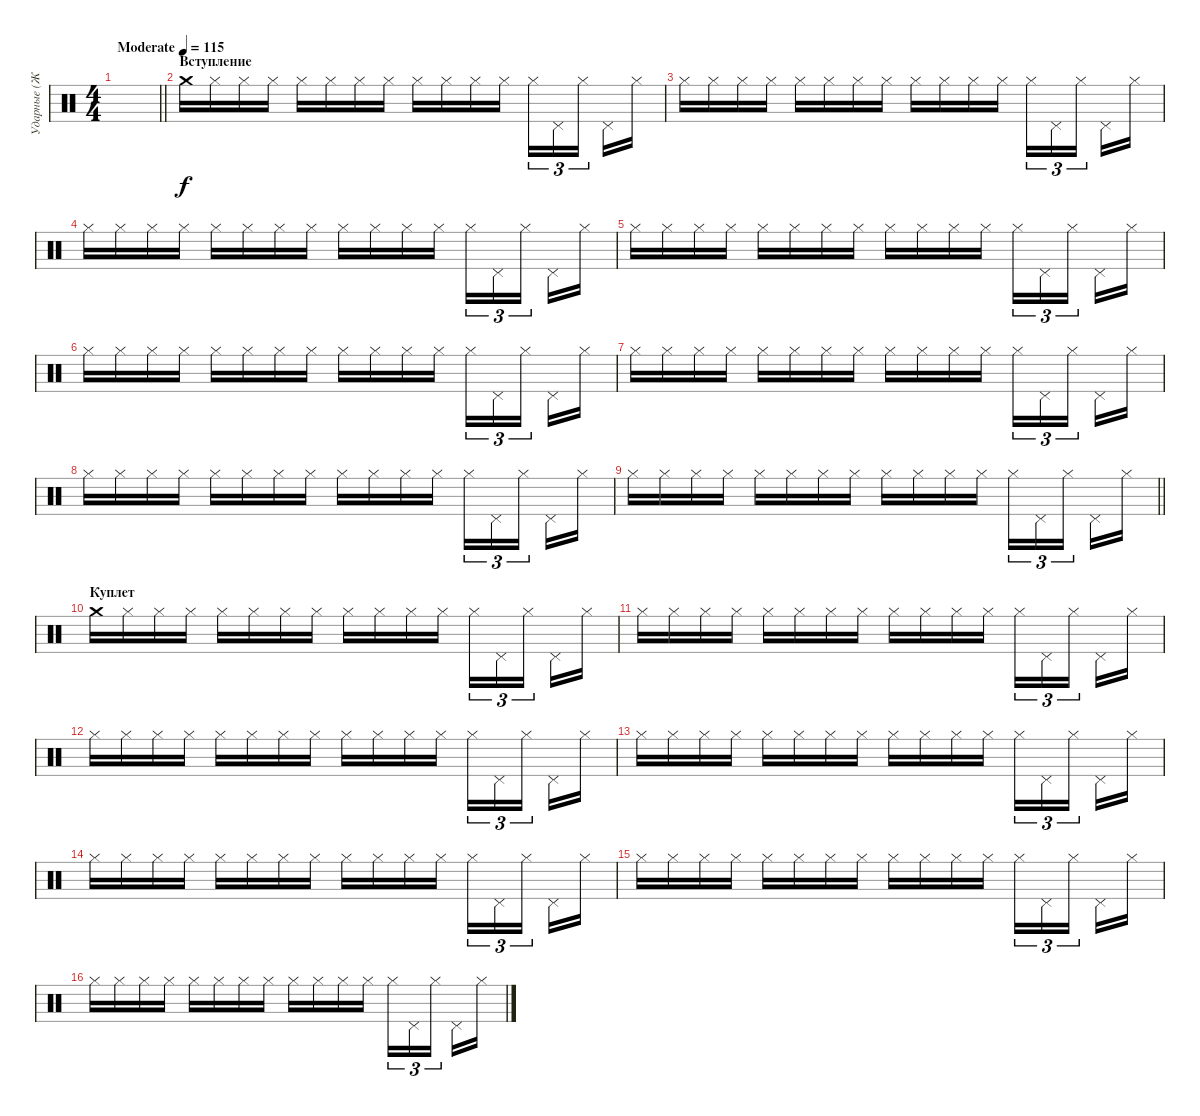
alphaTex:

\track ("Ударные (Железо)" "Ударные (Ж") {instrument percussion}
\staff {score}
\articulation defaults
\ts (4 4)
\tempo (115 "Moderate")
\clef neutral
\barLineRight lightlight
\ks c
|
\section ("" "Вступление")
"Crash medium (hit)".16 "Hi-Hat (closed)".16 "Hi-Hat (closed)".16 "Hi-Hat (closed)".16 "Hi-Hat (closed)".16 "Hi-Hat (closed)".16 "Hi-Hat (closed)".16 "Hi-Hat (closed)".16 "Hi-Hat (closed)".16 "Hi-Hat (closed)".16 "Hi-Hat (closed)".16 "Hi-Hat (closed)".16 "Hi-Hat (closed)".16{tu (3 2)} "Pedal Hi-Hat (hit)".16{tu (3 2)} "Hi-Hat (closed)".16{tu (3 2) beam splitsecondary} "Pedal Hi-Hat (hit)".16 "Hi-Hat (closed)".16 |
"Hi-Hat (closed)".16 "Hi-Hat (closed)".16 "Hi-Hat (closed)".16 "Hi-Hat (closed)".16 "Hi-Hat (closed)".16 "Hi-Hat (closed)".16 "Hi-Hat (closed)".16 "Hi-Hat (closed)".16 "Hi-Hat (closed)".16 "Hi-Hat (closed)".16 "Hi-Hat (closed)".16 "Hi-Hat (closed)".16 "Hi-Hat (closed)".16{tu (3 2)} "Pedal Hi-Hat (hit)".16{tu (3 2)} "Hi-Hat (closed)".16{tu (3 2) beam splitsecondary} "Pedal Hi-Hat (hit)".16 "Hi-Hat (closed)".16 |
"Hi-Hat (closed)".16 "Hi-Hat (closed)".16 "Hi-Hat (closed)".16 "Hi-Hat (closed)".16 "Hi-Hat (closed)".16 "Hi-Hat (closed)".16 "Hi-Hat (closed)".16 "Hi-Hat (closed)".16 "Hi-Hat (closed)".16 "Hi-Hat (closed)".16 "Hi-Hat (closed)".16 "Hi-Hat (closed)".16 "Hi-Hat (closed)".16{tu (3 2)} "Pedal Hi-Hat (hit)".16{tu (3 2)} "Hi-Hat (closed)".16{tu (3 2) beam splitsecondary} "Pedal Hi-Hat (hit)".16 "Hi-Hat (closed)".16 |
"Hi-Hat (closed)".16 "Hi-Hat (closed)".16 "Hi-Hat (closed)".16 "Hi-Hat (closed)".16 "Hi-Hat (closed)".16 "Hi-Hat (closed)".16 "Hi-Hat (closed)".16 "Hi-Hat (closed)".16 "Hi-Hat (closed)".16 "Hi-Hat (closed)".16 "Hi-Hat (closed)".16 "Hi-Hat (closed)".16 "Hi-Hat (closed)".16{tu (3 2)} "Pedal Hi-Hat (hit)".16{tu (3 2)} "Hi-Hat (closed)".16{tu (3 2) beam splitsecondary} "Pedal Hi-Hat (hit)".16 "Hi-Hat (closed)".16 |
"Hi-Hat (closed)".16 "Hi-Hat (closed)".16 "Hi-Hat (closed)".16 "Hi-Hat (closed)".16 "Hi-Hat (closed)".16 "Hi-Hat (closed)".16 "Hi-Hat (closed)".16 "Hi-Hat (closed)".16 "Hi-Hat (closed)".16 "Hi-Hat (closed)".16 "Hi-Hat (closed)".16 "Hi-Hat (closed)".16 "Hi-Hat (closed)".16{tu (3 2)} "Pedal Hi-Hat (hit)".16{tu (3 2)} "Hi-Hat (closed)".16{tu (3 2) beam splitsecondary} "Pedal Hi-Hat (hit)".16 "Hi-Hat (closed)".16 |
"Hi-Hat (closed)".16 "Hi-Hat (closed)".16 "Hi-Hat (closed)".16 "Hi-Hat (closed)".16 "Hi-Hat (closed)".16 "Hi-Hat (closed)".16 "Hi-Hat (closed)".16 "Hi-Hat (closed)".16 "Hi-Hat (closed)".16 "Hi-Hat (closed)".16 "Hi-Hat (closed)".16 "Hi-Hat (closed)".16 "Hi-Hat (closed)".16{tu (3 2)} "Pedal Hi-Hat (hit)".16{tu (3 2)} "Hi-Hat (closed)".16{tu (3 2) beam splitsecondary} "Pedal Hi-Hat (hit)".16 "Hi-Hat (closed)".16 |
"Hi-Hat (closed)".16 "Hi-Hat (closed)".16 "Hi-Hat (closed)".16 "Hi-Hat (closed)".16 "Hi-Hat (closed)".16 "Hi-Hat (closed)".16 "Hi-Hat (closed)".16 "Hi-Hat (closed)".16 "Hi-Hat (closed)".16 "Hi-Hat (closed)".16 "Hi-Hat (closed)".16 "Hi-Hat (closed)".16 "Hi-Hat (closed)".16{tu (3 2)} "Pedal Hi-Hat (hit)".16{tu (3 2)} "Hi-Hat (closed)".16{tu (3 2) beam splitsecondary} "Pedal Hi-Hat (hit)".16 "Hi-Hat (closed)".16 |
\barLineRight lightlight "Hi-Hat (closed)".16 "Hi-Hat (closed)".16 "Hi-Hat (closed)".16 "Hi-Hat (closed)".16 "Hi-Hat (closed)".16 "Hi-Hat (closed)".16 "Hi-Hat (closed)".16 "Hi-Hat (closed)".16 "Hi-Hat (closed)".16 "Hi-Hat (closed)".16 "Hi-Hat (closed)".16 "Hi-Hat (closed)".16 "Hi-Hat (closed)".16{tu (3 2)} "Pedal Hi-Hat (hit)".16{tu (3 2)} "Hi-Hat (closed)".16{tu (3 2) beam splitsecondary} "Pedal Hi-Hat (hit)".16 "Hi-Hat (closed)".16
|
\section ("" "Куплет")
"Crash medium (hit)".16 "Hi-Hat (closed)".16 "Hi-Hat (closed)".16 "Hi-Hat (closed)".16 "Hi-Hat (closed)".16 "Hi-Hat (closed)".16 "Hi-Hat (closed)".16 "Hi-Hat (closed)".16 "Hi-Hat (closed)".16 "Hi-Hat (closed)".16 "Hi-Hat (closed)".16 "Hi-Hat (closed)".16 "Hi-Hat (closed)".16{tu (3 2)} "Pedal Hi-Hat (hit)".16{tu (3 2)} "Hi-Hat (closed)".16{tu (3 2) beam splitsecondary} "Pedal Hi-Hat (hit)".16 "Hi-Hat (closed)".16 |
"Hi-Hat (closed)".16 "Hi-Hat (closed)".16 "Hi-Hat (closed)".16 "Hi-Hat (closed)".16 "Hi-Hat (closed)".16 "Hi-Hat (closed)".16 "Hi-Hat (closed)".16 "Hi-Hat (closed)".16 "Hi-Hat (closed)".16 "Hi-Hat (closed)".16 "Hi-Hat (closed)".16 "Hi-Hat (closed)".16 "Hi-Hat (closed)".16{tu (3 2)} "Pedal Hi-Hat (hit)".16{tu (3 2)} "Hi-Hat (closed)".16{tu (3 2) beam splitsecondary} "Pedal Hi-Hat (hit)".16 "Hi-Hat (closed)".16 |
"Hi-Hat (closed)".16 "Hi-Hat (closed)".16 "Hi-Hat (closed)".16 "Hi-Hat (closed)".16 "Hi-Hat (closed)".16 "Hi-Hat (closed)".16 "Hi-Hat (closed)".16 "Hi-Hat (closed)".16 "Hi-Hat (closed)".16 "Hi-Hat (closed)".16 "Hi-Hat (closed)".16 "Hi-Hat (closed)".16 "Hi-Hat (closed)".16{tu (3 2)} "Pedal Hi-Hat (hit)".16{tu (3 2)} "Hi-Hat (closed)".16{tu (3 2) beam splitsecondary} "Pedal Hi-Hat (hit)".16 "Hi-Hat (closed)".16 |
"Hi-Hat (closed)".16 "Hi-Hat (closed)".16 "Hi-Hat (closed)".16 "Hi-Hat (closed)".16 "Hi-Hat (closed)".16 "Hi-Hat (closed)".16 "Hi-Hat (closed)".16 "Hi-Hat (closed)".16 "Hi-Hat (closed)".16 "Hi-Hat (closed)".16 "Hi-Hat (closed)".16 "Hi-Hat (closed)".16 "Hi-Hat (closed)".16{tu (3 2)} "Pedal Hi-Hat (hit)".16{tu (3 2)} "Hi-Hat (closed)".16{tu (3 2) beam splitsecondary} "Pedal Hi-Hat (hit)".16 "Hi-Hat (closed)".16 |
"Hi-Hat (closed)".16 "Hi-Hat (closed)".16 "Hi-Hat (closed)".16 "Hi-Hat (closed)".16 "Hi-Hat (closed)".16 "Hi-Hat (closed)".16 "Hi-Hat (closed)".16 "Hi-Hat (closed)".16 "Hi-Hat (closed)".16 "Hi-Hat (closed)".16 "Hi-Hat (closed)".16 "Hi-Hat (closed)".16 "Hi-Hat (closed)".16{tu (3 2)} "Pedal Hi-Hat (hit)".16{tu (3 2)} "Hi-Hat (closed)".16{tu (3 2) beam splitsecondary} "Pedal Hi-Hat (hit)".16 "Hi-Hat (closed)".16 |
"Hi-Hat (closed)".16 "Hi-Hat (closed)".16 "Hi-Hat (closed)".16 "Hi-Hat (closed)".16 "Hi-Hat (closed)".16 "Hi-Hat (closed)".16 "Hi-Hat (closed)".16 "Hi-Hat (closed)".16 "Hi-Hat (closed)".16 "Hi-Hat (closed)".16 "Hi-Hat (closed)".16 "Hi-Hat (closed)".16 "Hi-Hat (closed)".16{tu (3 2)} "Pedal Hi-Hat (hit)".16{tu (3 2)} "Hi-Hat (closed)".16{tu (3 2) beam splitsecondary} "Pedal Hi-Hat (hit)".16 "Hi-Hat (closed)".16 |
"Hi-Hat (closed)".16 "Hi-Hat (closed)".16 "Hi-Hat (closed)".16 "Hi-Hat (closed)".16 "Hi-Hat (closed)".16 "Hi-Hat (closed)".16 "Hi-Hat (closed)".16 "Hi-Hat (closed)".16 "Hi-Hat (closed)".16 "Hi-Hat (closed)".16 "Hi-Hat (closed)".16 "Hi-Hat (closed)".16 "Hi-Hat (closed)".16{tu (3 2)} "Pedal Hi-Hat (hit)".16{tu (3 2)} "Hi-Hat (closed)".16{tu (3 2) beam splitsecondary} "Pedal Hi-Hat (hit)".16 "Hi-Hat (closed)".16
